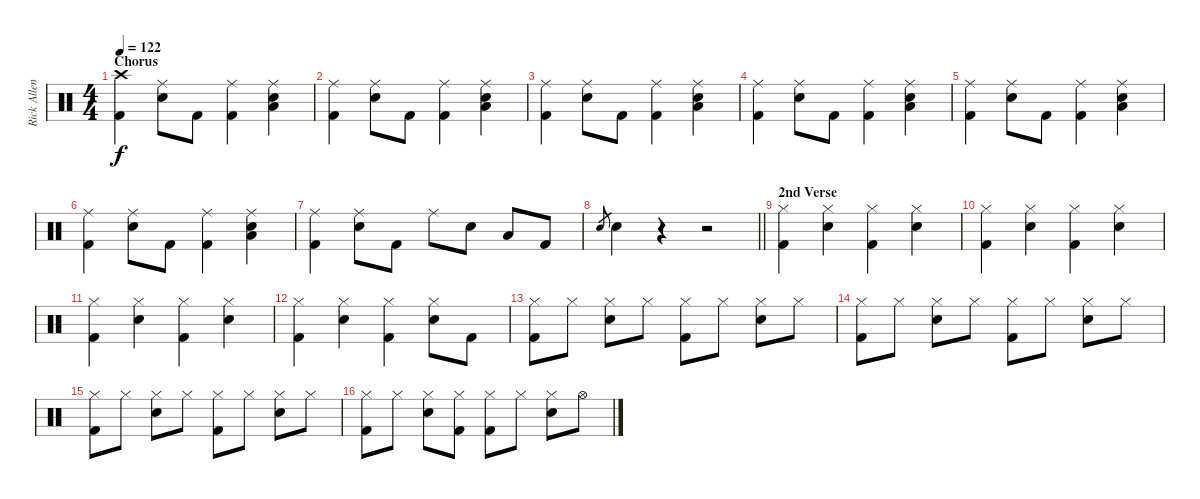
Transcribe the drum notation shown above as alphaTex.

\track ("Rick Allen" "Rick Allen") {instrument percussion}
\staff {score}
\articulation defaults
\ts (4 4)
\section ("" "Chorus")
\tempo 122
\clef neutral
\ks c
("Crash high (hit)" "Kick (hit) 2").4{dy f} ("Ride (middle)" "Electric Snare (hit)").8 "Kick (hit) 2".8 ("Ride (middle)" "Kick (hit) 2").4 ("Ride (middle)" "Low Tom (hit)" "Electric Snare (hit)").4 |
("Ride (middle)" "Kick (hit) 2").4 ("Ride (middle)" "Electric Snare (hit)").8 "Kick (hit) 2".8 ("Ride (middle)" "Kick (hit) 2").4 ("Ride (middle)" "Low Tom (hit)" "Electric Snare (hit)").4 |
("Ride (middle)" "Kick (hit) 2").4 ("Ride (middle)" "Electric Snare (hit)").8 "Kick (hit) 2".8 ("Ride (middle)" "Kick (hit) 2").4 ("Ride (middle)" "Low Tom (hit)" "Electric Snare (hit)").4 |
("Ride (middle)" "Kick (hit) 2").4 ("Ride (middle)" "Electric Snare (hit)").8 "Kick (hit) 2".8 ("Ride (middle)" "Kick (hit) 2").4 ("Ride (middle)" "Low Tom (hit)" "Electric Snare (hit)").4 |
("Ride (middle)" "Kick (hit) 2").4 ("Ride (middle)" "Electric Snare (hit)").8 "Kick (hit) 2".8 ("Ride (middle)" "Kick (hit) 2").4 ("Ride (middle)" "Low Tom (hit)" "Electric Snare (hit)").4 |
("Ride (middle)" "Kick (hit) 2").4 ("Ride (middle)" "Electric Snare (hit)").8 "Kick (hit) 2".8 ("Ride (middle)" "Kick (hit) 2").4 ("Ride (middle)" "Low Tom (hit)" "Electric Snare (hit)").4 |
("Ride (middle)" "Kick (hit) 2").4 ("Ride (middle)" "Electric Snare (hit)").8 "Kick (hit) 2".8 "Ride (middle)".8 "Electric Snare (hit)".8 "Low Tom (hit)".8 "Kick (hit) 2".8 |
\barLineRight lightlight "Electric Snare (hit)".8{gr} "Electric Snare (hit)".4
r.4 r.2 |
\section ("" "2nd Verse")
("Hi-Hat (closed)" "Kick (hit) 2").4 ("Hi-Hat (closed)" "Electric Snare (hit)").4 ("Hi-Hat (closed)" "Kick (hit) 2").4 ("Hi-Hat (closed)" "Electric Snare (hit)").4 |
("Hi-Hat (closed)" "Kick (hit) 2").4 ("Hi-Hat (closed)" "Electric Snare (hit)").4 ("Hi-Hat (closed)" "Kick (hit) 2").4 ("Hi-Hat (closed)" "Electric Snare (hit)").4 |
("Hi-Hat (closed)" "Kick (hit) 2").4 ("Hi-Hat (closed)" "Electric Snare (hit)").4 ("Hi-Hat (closed)" "Kick (hit) 2").4 ("Hi-Hat (closed)" "Electric Snare (hit)").4 |
("Hi-Hat (closed)" "Kick (hit) 2").4 ("Hi-Hat (closed)" "Electric Snare (hit)").4 ("Hi-Hat (closed)" "Kick (hit) 2").4 ("Hi-Hat (closed)" "Electric Snare (hit)").8 "Kick (hit) 2".8 |
("Hi-Hat (closed)" "Kick (hit) 2").8 "Hi-Hat (closed)".8 ("Hi-Hat (closed)" "Electric Snare (hit)").8 "Hi-Hat (closed)".8 ("Hi-Hat (closed)" "Kick (hit) 2").8 "Hi-Hat (closed)".8 ("Hi-Hat (closed)" "Electric Snare (hit)").8 "Hi-Hat (closed)".8 |
("Hi-Hat (closed)" "Kick (hit) 2").8 "Hi-Hat (closed)".8 ("Hi-Hat (closed)" "Electric Snare (hit)").8 "Hi-Hat (closed)".8 ("Hi-Hat (closed)" "Kick (hit) 2").8 "Hi-Hat (closed)".8 ("Hi-Hat (closed)" "Electric Snare (hit)").8 "Hi-Hat (closed)".8 |
("Hi-Hat (closed)" "Kick (hit) 2").8 "Hi-Hat (closed)".8 ("Hi-Hat (closed)" "Electric Snare (hit)").8 "Hi-Hat (closed)".8 ("Hi-Hat (closed)" "Kick (hit) 2").8 "Hi-Hat (closed)".8 ("Hi-Hat (closed)" "Electric Snare (hit)").8 "Hi-Hat (closed)".8 |
("Hi-Hat (closed)" "Kick (hit) 2").8 "Hi-Hat (closed)".8 ("Hi-Hat (closed)" "Electric Snare (hit)").8 ("Hi-Hat (closed)" "Kick (hit) 2").8 ("Hi-Hat (closed)" "Kick (hit) 2").8 "Hi-Hat (closed)".8 ("Hi-Hat (closed)" "Electric Snare (hit)").8 "Hi-Hat (open)".8
